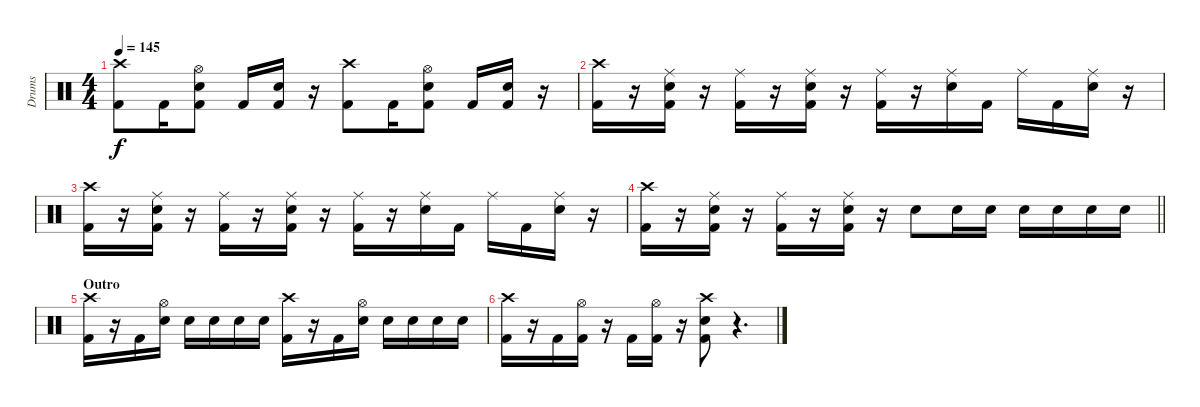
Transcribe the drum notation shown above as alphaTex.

\track ("Drums" "Drums") {instrument percussion}
\staff {score}
\articulation defaults
\ts (4 4)
\tempo 145
\clef neutral
\ks c
("Crash high (hit)" "Kick (hit) 2").8{dy f} "Kick (hit) 2".16 ("Hi-Hat (open)" "Snare (hit) 2" "Kick (hit) 2").8 "Kick (hit) 2".16 ("Snare (hit) 2" "Kick (hit) 2").16 r.16 ("Crash high (hit)" "Kick (hit) 2").8 "Kick (hit) 2".16 ("Hi-Hat (open)" "Snare (hit) 2" "Kick (hit) 2").8 "Kick (hit) 2".16 ("Snare (hit) 2" "Kick (hit) 2").16 r.16 |
("Crash high (hit)" "Kick (hit) 2").16 r.16 ("Ride (middle)" "Snare (hit) 2" "Kick (hit) 2").16 r.16 ("Ride (middle)" "Kick (hit) 2").16 r.16 ("Ride (middle)" "Snare (hit) 2" "Kick (hit) 2").16 r.16 ("Ride (middle)" "Kick (hit) 2").16 r.16 ("Ride (middle)" "Snare (hit) 2").16 "Kick (hit) 2".16 "Ride (middle)".16 "Kick (hit) 2".16 ("Ride (middle)" "Snare (hit) 2").16 r.16 |
("Crash high (hit)" "Kick (hit) 2").16 r.16 ("Ride (middle)" "Snare (hit) 2" "Kick (hit) 2").16 r.16 ("Ride (middle)" "Kick (hit) 2").16 r.16 ("Ride (middle)" "Snare (hit) 2" "Kick (hit) 2").16 r.16 ("Ride (middle)" "Kick (hit) 2").16 r.16 ("Ride (middle)" "Snare (hit) 2").16 "Kick (hit) 2".16 "Ride (middle)".16 "Kick (hit) 2".16 ("Ride (middle)" "Snare (hit) 2").16 r.16 |
\barLineRight lightlight
("Crash high (hit)" "Kick (hit) 2").16 r.16 ("Ride (middle)" "Snare (hit) 2" "Kick (hit) 2").16 r.16 ("Ride (middle)" "Kick (hit) 2").16 r.16 ("Ride (middle)" "Snare (hit) 2" "Kick (hit) 2").16 r.16 "Snare (hit) 2".8 "Snare (hit) 2".16 "Snare (hit) 2".16 "Snare (hit) 2".16 "Snare (hit) 2".16 "Snare (hit) 2".16 "Snare (hit) 2".16 |
\section ("" "Outro")
("Crash high (hit)" "Kick (hit) 2").16 r.16 "Kick (hit) 2".16 ("Hi-Hat (open)" "Snare (hit) 2").16 "Snare (hit) 2".16 "Snare (hit) 2".16 "Snare (hit) 2".16 "Snare (hit) 2".16 ("Crash high (hit)" "Kick (hit) 2").16 r.16 "Kick (hit) 2".16 ("Hi-Hat (open)" "Snare (hit) 2").16 "Snare (hit) 2".16 "Snare (hit) 2".16 "Snare (hit) 2".16 "Snare (hit) 2".16 |
("Crash high (hit)" "Kick (hit) 2").16 r.16 "Kick (hit) 2".16 ("Hi-Hat (open)" "Kick (hit) 2").16 r.16 "Kick (hit) 2".16 ("Hi-Hat (open)" "Kick (hit) 2").16 r.16 ("Crash high (hit)" "Snare (hit) 2" "Kick (hit) 2").8 r.4{d}
